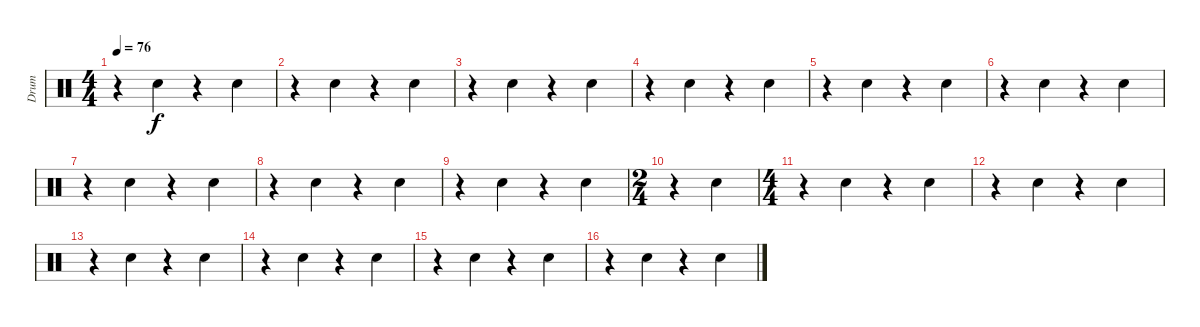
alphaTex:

\track ("Drum" "Drum") {instrument percussion}
\staff {score}
\articulation defaults
\ts (4 4)
\tempo 76
\clef neutral
\ks c
r.4{dy f} "Electric Snare (hit)".4 r.4 "Electric Snare (hit)".4 |
r.4 "Electric Snare (hit)".4 r.4 "Electric Snare (hit)".4 |
r.4 "Electric Snare (hit)".4 r.4 "Electric Snare (hit)".4 |
r.4 "Electric Snare (hit)".4 r.4 "Electric Snare (hit)".4 |
r.4 "Electric Snare (hit)".4 r.4 "Electric Snare (hit)".4 |
r.4 "Electric Snare (hit)".4 r.4 "Electric Snare (hit)".4 |
r.4 "Electric Snare (hit)".4 r.4 "Electric Snare (hit)".4 |
r.4 "Electric Snare (hit)".4 r.4 "Electric Snare (hit)".4 |
r.4 "Electric Snare (hit)".4 r.4 "Electric Snare (hit)".4 |
\ts (2 4)
r.4 "Electric Snare (hit)".4 |
\ts (4 4)
r.4 "Electric Snare (hit)".4 r.4 "Electric Snare (hit)".4 |
r.4 "Electric Snare (hit)".4 r.4 "Electric Snare (hit)".4 |
r.4 "Electric Snare (hit)".4 r.4 "Electric Snare (hit)".4 |
r.4 "Electric Snare (hit)".4 r.4 "Electric Snare (hit)".4 |
r.4 "Electric Snare (hit)".4 r.4 "Electric Snare (hit)".4 |
r.4 "Electric Snare (hit)".4 r.4 "Electric Snare (hit)".4
